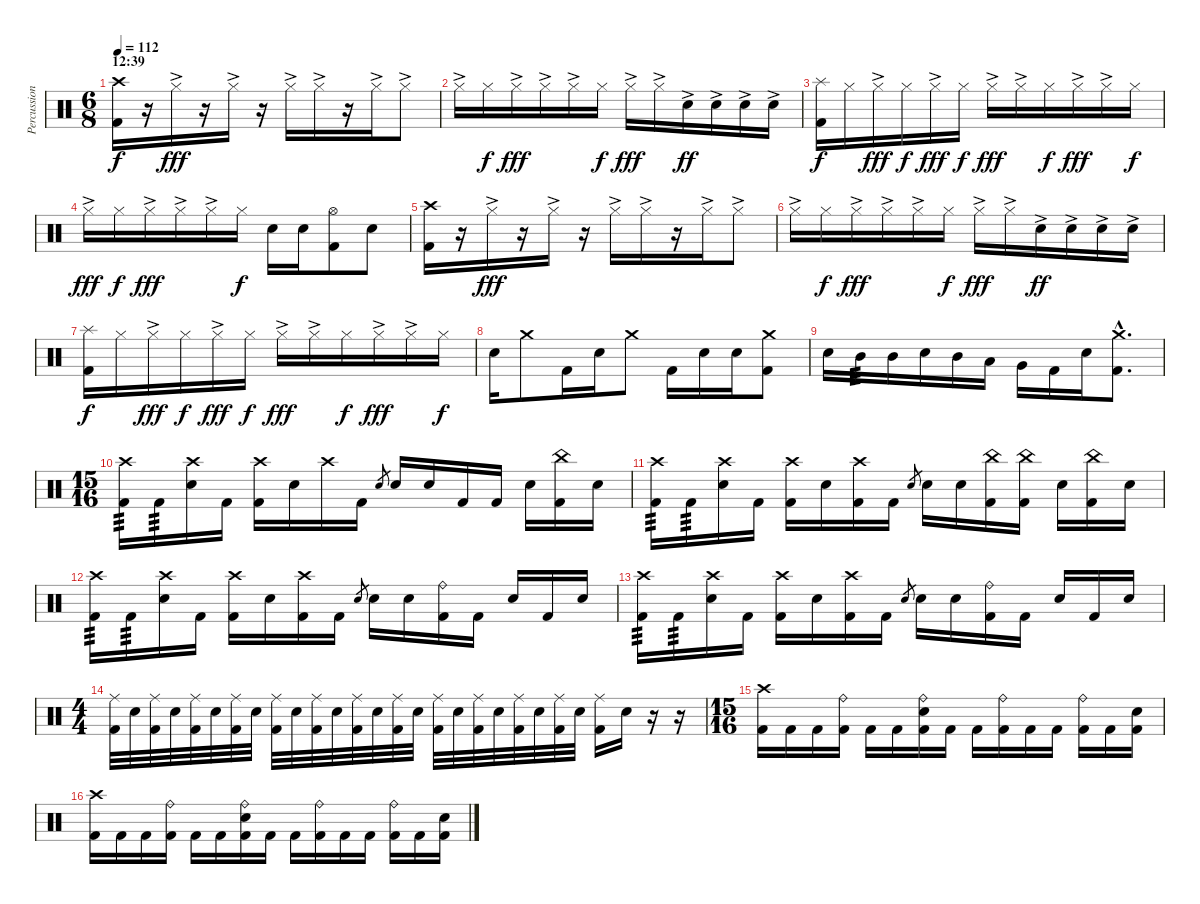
\track ("Percussion" "Percussion") {instrument percussion}
\staff {score}
\articulation defaults
\ts (6 8)
\section ("" "12:39")
\tempo 112
\clef neutral
\ks c
("Crash high (hit)" "Kick (hit) 2").16{dy f} r.16 "Hi-Hat (closed)"{ac}.16{dy fff} r.16 "Hi-Hat (closed)"{ac}.16 r.16 "Hi-Hat (closed)"{ac}.16 "Hi-Hat (closed)"{ac}.16 r.16 "Hi-Hat (closed)"{ac}.16 "Hi-Hat (closed)"{ac}.8 |
"Hi-Hat (closed)"{ac}.16 "Hi-Hat (closed)".16{dy f} "Hi-Hat (closed)"{ac}.16{dy fff} "Hi-Hat (closed)"{ac}.16 "Hi-Hat (closed)"{ac}.16 "Hi-Hat (closed)".16{dy f} "Hi-Hat (closed)"{ac}.16{dy fff} "Hi-Hat (closed)"{ac}.16 "Electric Snare (hit)"{ac}.16{dy ff} "Electric Snare (hit)"{ac}.16 "Electric Snare (hit)"{ac}.16 "Electric Snare (hit)"{ac}.16 |
("Splash (hit)" "Kick (hit) 2").16{dy f} "Hi-Hat (closed)".16 "Hi-Hat (closed)"{ac}.16{dy fff} "Hi-Hat (closed)".16{dy f} "Hi-Hat (closed)"{ac}.16{dy fff} "Hi-Hat (closed)".16{dy f} "Hi-Hat (closed)"{ac}.16{dy fff} "Hi-Hat (closed)"{ac}.16 "Hi-Hat (closed)".16{dy f} "Hi-Hat (closed)"{ac}.16{dy fff} "Hi-Hat (closed)"{ac}.16 "Hi-Hat (closed)".16{dy f} |
"Hi-Hat (closed)"{ac}.16{dy fff} "Hi-Hat (closed)".16{dy f} "Hi-Hat (closed)"{ac}.16{dy fff} "Hi-Hat (closed)"{ac}.16 "Hi-Hat (closed)"{ac}.16 "Hi-Hat (closed)".16{dy f} "Electric Snare (hit)".16 "Electric Snare (hit)".16 ("Hi-Hat (open)" "Kick (hit) 2").8 "Electric Snare (hit)".8 |
("Crash high (hit)" "Kick (hit) 2").16 r.16 "Hi-Hat (closed)"{ac}.16{dy fff} r.16 "Hi-Hat (closed)"{ac}.16 r.16 "Hi-Hat (closed)"{ac}.16 "Hi-Hat (closed)"{ac}.16 r.16 "Hi-Hat (closed)"{ac}.16 "Hi-Hat (closed)"{ac}.8 |
"Hi-Hat (closed)"{ac}.16 "Hi-Hat (closed)".16{dy f} "Hi-Hat (closed)"{ac}.16{dy fff} "Hi-Hat (closed)"{ac}.16 "Hi-Hat (closed)"{ac}.16 "Hi-Hat (closed)".16{dy f} "Hi-Hat (closed)"{ac}.16{dy fff} "Hi-Hat (closed)"{ac}.16 "Electric Snare (hit)"{ac}.16{dy ff} "Electric Snare (hit)"{ac}.16 "Electric Snare (hit)"{ac}.16 "Electric Snare (hit)"{ac}.16 |
("Splash (hit)" "Kick (hit) 2").16{dy f} "Hi-Hat (closed)".16 "Hi-Hat (closed)"{ac}.16{dy fff} "Hi-Hat (closed)".16{dy f} "Hi-Hat (closed)"{ac}.16{dy fff} "Hi-Hat (closed)".16{dy f} "Hi-Hat (closed)"{ac}.16{dy fff} "Hi-Hat (closed)"{ac}.16 "Hi-Hat (closed)".16{dy f} "Hi-Hat (closed)"{ac}.16{dy fff} "Hi-Hat (closed)"{ac}.16 "Hi-Hat (closed)".16{dy f} |
"Electric Snare (hit)".16 "Crash medium (hit)".8 "Kick (hit) 2".16 "Electric Snare (hit)".16 "Crash medium (hit)".8 "Kick (hit) 2".16 "Electric Snare (hit)".16 "Electric Snare (hit)".16 ("Crash medium (hit)" "Kick (hit) 2").8 |
"Electric Snare (hit)".16 "Mid Tom (hit)".16{tp 3} "Mid Tom (hit)".16 "Electric Snare (hit)".16 "Mid Tom (hit)".16 "Low Tom (hit)".16 "Very Low Tom (hit)".16 "Kick (hit) 2".16 "Electric Snare (hit)".16 ("Crash medium (hit)"{hac} "Kick (hit) 2"{hac}).8{d} |
\ts (15 16)
("Kick (hit) 2" "Crash high (hit)").16{tp 3} "Kick (hit) 2".16{tp 3} ("Crash high (hit)" "Electric Snare (hit)").16 "Kick (hit) 2".16 ("Kick (hit) 2" "Crash high (hit)").16 "Electric Snare (hit)".16 "Crash high (hit)".16 "Kick (hit) 2".16 "Electric Snare (hit)".8{gr} "Electric Snare (hit)".16 "Electric Snare (hit)".16 "Kick (hit) 2".16 "Kick (hit) 2".16 "Electric Snare (hit)".16 ("China (hit)" "Kick (hit) 2").16 "Electric Snare (hit)".16 |
("Kick (hit) 2" "Crash high (hit)").16{tp 3} "Kick (hit) 2".16{tp 3} ("Crash high (hit)" "Electric Snare (hit)").16 "Kick (hit) 2".16 ("Kick (hit) 2" "Crash high (hit)").16 "Electric Snare (hit)".16 ("Kick (hit) 2" "Crash high (hit)").16 "Kick (hit) 2".16 "Electric Snare (hit)".8{gr} "Electric Snare (hit)".16 "Electric Snare (hit)".16 ("Kick (hit) 2" "China (hit)").16 ("Kick (hit) 2" "China (hit)").16 "Electric Snare (hit)".16 ("China (hit)" "Kick (hit) 2").16 "Electric Snare (hit)".16 |
("Kick (hit) 2" "Crash high (hit)").16{tp 3} "Kick (hit) 2".16{tp 3} ("Crash high (hit)" "Electric Snare (hit)").16 "Kick (hit) 2".16 ("Kick (hit) 2" "Crash high (hit)").16 "Electric Snare (hit)".16 ("Kick (hit) 2" "Crash high (hit)").16 "Kick (hit) 2".16 "Electric Snare (hit)".8{gr} "Electric Snare (hit)".16 "Electric Snare (hit)".16 ("Kick (hit) 2" "Ride (bell)").16 "Kick (hit) 2".16 "Electric Snare (hit)".16 "Kick (hit) 2".16 "Electric Snare (hit)".16 |
("Kick (hit) 2" "Crash high (hit)").16{tp 3} "Kick (hit) 2".16{tp 3} ("Crash high (hit)" "Electric Snare (hit)").16 "Kick (hit) 2".16 ("Kick (hit) 2" "Crash high (hit)").16 "Electric Snare (hit)".16 ("Kick (hit) 2" "Crash high (hit)").16 "Kick (hit) 2".16 "Electric Snare (hit)".8{gr} "Electric Snare (hit)".16 "Electric Snare (hit)".16 ("Kick (hit) 2" "Ride (bell)").16 "Kick (hit) 2".16 "Electric Snare (hit)".16 "Kick (hit) 2".16 "Electric Snare (hit)".16 |
\ts (4 4)
("Ride (middle)" "Kick (hit) 2").32 "Electric Snare (hit)".32 ("Ride (middle)" "Kick (hit) 2").32 "Electric Snare (hit)".32 ("Ride (middle)" "Kick (hit) 2").32 "Electric Snare (hit)".32 ("Ride (middle)" "Kick (hit) 2").32 "Electric Snare (hit)".32 ("Ride (middle)" "Kick (hit) 2").32 "Electric Snare (hit)".32 ("Ride (middle)" "Kick (hit) 2").32 "Electric Snare (hit)".32 ("Ride (middle)" "Kick (hit) 2").32 "Electric Snare (hit)".32 ("Ride (middle)" "Kick (hit) 2").32 "Electric Snare (hit)".32 ("Ride (middle)" "Kick (hit) 2").32 "Electric Snare (hit)".32 ("Ride (middle)" "Kick (hit) 2").32 "Electric Snare (hit)".32 ("Ride (middle)" "Kick (hit) 2").32 "Electric Snare (hit)".32 ("Ride (middle)" "Kick (hit) 2").32 "Electric Snare (hit)".32 ("Ride (middle)" "Kick (hit) 2").16 "Electric Snare (hit)".16 r.16 r.16 |
\ts (15 16)
("Kick (hit) 2" "Crash high (hit)").16 "Kick (hit) 2".16 "Kick (hit) 2".16 ("Kick (hit) 2" "Ride (bell)").16 "Kick (hit) 2".16 "Kick (hit) 2".16 ("Kick (hit) 2" "Electric Snare (hit)" "Ride (bell)").16 "Kick (hit) 2".16 "Kick (hit) 2".16 ("Kick (hit) 2" "Ride (bell)").16 "Kick (hit) 2".16 "Kick (hit) 2".16 ("Kick (hit) 2" "Ride (bell)").16 "Kick (hit) 2".16 ("Kick (hit) 2" "Electric Snare (hit)").16 |
("Kick (hit) 2" "Crash high (hit)").16 "Kick (hit) 2".16 "Kick (hit) 2".16 ("Kick (hit) 2" "Ride (bell)").16 "Kick (hit) 2".16 "Kick (hit) 2".16 ("Kick (hit) 2" "Electric Snare (hit)" "Ride (bell)").16 "Kick (hit) 2".16 "Kick (hit) 2".16 ("Kick (hit) 2" "Ride (bell)").16 "Kick (hit) 2".16 "Kick (hit) 2".16 ("Kick (hit) 2" "Ride (bell)").16 "Kick (hit) 2".16 ("Kick (hit) 2" "Electric Snare (hit)").16
